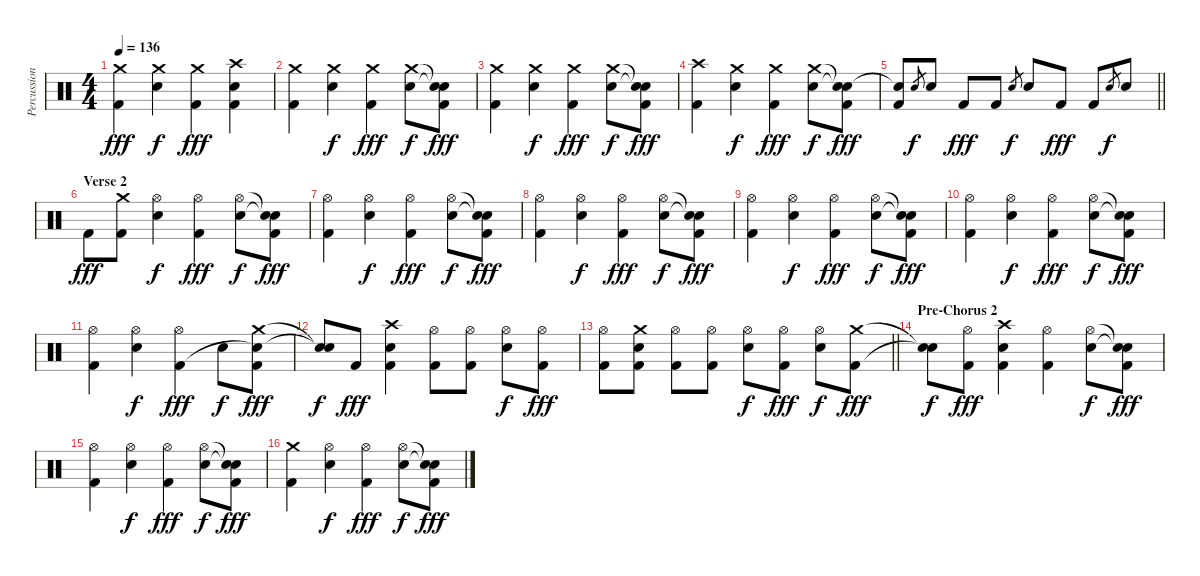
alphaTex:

\track ("Percussion" "Percussion") {instrument percussion}
\staff {score}
\articulation defaults
\ts (4 4)
\tempo 136
\clef neutral
\ks c
("Crash medium (hit)" "Kick (hit) 2").4{dy fff} ("Crash medium (hit)" "Electric Snare (hit)").4{dy f} ("Crash medium (hit)" "Kick (hit) 2").4{dy fff} ("Crash high (hit)" "Electric Snare (hit)" "Kick (hit) 2").4 |
("Crash medium (hit)" "Kick (hit) 2").4 ("Crash medium (hit)" "Electric Snare (hit)").4{dy f} ("Crash medium (hit)" "Kick (hit) 2").4{dy fff} ("Crash medium (hit)" "Electric Snare (hit)").8{dy f} ("Snare (hit)"{t} "Snare (hit)"{t} "Kick (hit) 2").8{dy fff} |
("Crash medium (hit)" "Kick (hit) 2").4 ("Crash medium (hit)" "Electric Snare (hit)").4{dy f} ("Crash medium (hit)" "Kick (hit) 2").4{dy fff} ("Crash medium (hit)" "Electric Snare (hit)").8{dy f} ("Snare (hit)"{t} "Snare (hit)"{t} "Kick (hit) 2").8{dy fff} |
("Crash high (hit)" "Kick (hit) 2").4 ("Crash medium (hit)" "Electric Snare (hit)").4{dy f} ("Crash medium (hit)" "Kick (hit) 2").4{dy fff} ("Crash medium (hit)" "Electric Snare (hit)").8{dy f} ("Snare (hit)"{t} "Snare (hit)"{t} "Kick (hit) 2").8{dy fff} |
\barLineRight lightlight
("Snare (hit)"{t} "Kick (hit) 2").8 "Electric Snare (hit)".8{gr dy f} "Electric Snare (hit)".8 "Kick (hit) 2".8{dy fff} "Kick (hit) 2".8 "Electric Snare (hit)".8{gr dy f} "Electric Snare (hit)".8 "Kick (hit) 2".8{dy fff} "Kick (hit) 2".8 "Electric Snare (hit)".8{gr dy f} "Electric Snare (hit)".8 |
\section ("" "Verse 2")
"Kick (hit) 2".8{dy fff} ("Crash medium (hit)" "Kick (hit) 2").8 ("Hi-Hat (open)" "Electric Snare (hit)").4{dy f} ("Hi-Hat (open)" "Kick (hit) 2").4{dy fff} ("Hi-Hat (open)" "Electric Snare (hit)").8{dy f} ("Snare (hit)"{t} "Snare (hit)"{t} "Kick (hit) 2").8{dy fff} |
("Hi-Hat (open)" "Kick (hit) 2").4 ("Hi-Hat (open)" "Electric Snare (hit)").4{dy f} ("Hi-Hat (open)" "Kick (hit) 2").4{dy fff} ("Hi-Hat (open)" "Electric Snare (hit)").8{dy f} ("Snare (hit)"{t} "Snare (hit)"{t} "Kick (hit) 2").8{dy fff} |
("Hi-Hat (open)" "Kick (hit) 2").4 ("Hi-Hat (open)" "Electric Snare (hit)").4{dy f} ("Hi-Hat (open)" "Kick (hit) 2").4{dy fff} ("Hi-Hat (open)" "Electric Snare (hit)").8{dy f} ("Snare (hit)"{t} "Snare (hit)"{t} "Kick (hit) 2").8{dy fff} |
("Hi-Hat (open)" "Kick (hit) 2").4 ("Hi-Hat (open)" "Electric Snare (hit)").4{dy f} ("Hi-Hat (open)" "Kick (hit) 2").4{dy fff} ("Hi-Hat (open)" "Electric Snare (hit)").8{dy f} ("Snare (hit)"{t} "Snare (hit)"{t} "Kick (hit) 2").8{dy fff} |
("Hi-Hat (open)" "Kick (hit) 2").4 ("Hi-Hat (open)" "Electric Snare (hit)").4{dy f} ("Hi-Hat (open)" "Kick (hit) 2").4{dy fff} ("Hi-Hat (open)" "Electric Snare (hit)").8{dy f} ("Snare (hit)"{t} "Snare (hit)"{t} "Kick (hit) 2").8{dy fff} |
("Hi-Hat (open)" "Kick (hit) 2").4 ("Hi-Hat (open)" "Electric Snare (hit)").4{dy f} ("Hi-Hat (open)" "Kick (hit) 2").4{dy fff} "Electric Snare (hit)".8{dy f} ("Crash medium (hit)" "Snare (hit)"{t} "Kick (hit) 2").8{dy fff} |
("Snare (hit)"{t} "Snare (hit)"{t}).8{dy f} "Kick (hit) 2".8{dy fff} ("Crash high (hit)" "Electric Snare (hit)" "Kick (hit) 2").4 ("Hi-Hat (open)" "Kick (hit) 2").8 ("Hi-Hat (open)" "Kick (hit) 2").8 ("Hi-Hat (open)" "Electric Snare (hit)").8{dy f} ("Hi-Hat (open)" "Kick (hit) 2").8{dy fff} |
\barLineRight lightlight
("Hi-Hat (open)" "Kick (hit) 2").8 ("Crash medium (hit)" "Electric Snare (hit)" "Kick (hit) 2").8 ("Hi-Hat (open)" "Kick (hit) 2").8 ("Hi-Hat (open)" "Kick (hit) 2").8 ("Hi-Hat (open)" "Electric Snare (hit)").8{dy f} ("Hi-Hat (open)" "Kick (hit) 2").8{dy fff} ("Hi-Hat (open)" "Electric Snare (hit)").8{dy f} ("Crash medium (hit)" "Kick (hit) 2").8{dy fff} |
\section ("" "Pre-Chorus 2")
("Snare (hit)"{t} "Snare (hit)"{t}).8{dy f} ("Hi-Hat (open)" "Kick (hit) 2").8{dy fff} ("Crash high (hit)" "Electric Snare (hit)" "Kick (hit) 2").4 ("Hi-Hat (open)" "Kick (hit) 2").4 ("Hi-Hat (open)" "Electric Snare (hit)").8{dy f} ("Snare (hit)"{t} "Snare (hit)"{t} "Kick (hit) 2").8{dy fff} |
("Hi-Hat (open)" "Kick (hit) 2").4 ("Hi-Hat (open)" "Electric Snare (hit)").4{dy f} ("Hi-Hat (open)" "Kick (hit) 2").4{dy fff} ("Hi-Hat (open)" "Electric Snare (hit)").8{dy f} ("Snare (hit)"{t} "Snare (hit)"{t} "Kick (hit) 2").8{dy fff} |
("Crash medium (hit)" "Kick (hit) 2").4 ("Hi-Hat (open)" "Electric Snare (hit)").4{dy f} ("Hi-Hat (open)" "Kick (hit) 2").4{dy fff} ("Hi-Hat (open)" "Electric Snare (hit)").8{dy f} ("Snare (hit)"{t} "Snare (hit)"{t} "Kick (hit) 2").8{dy fff}
